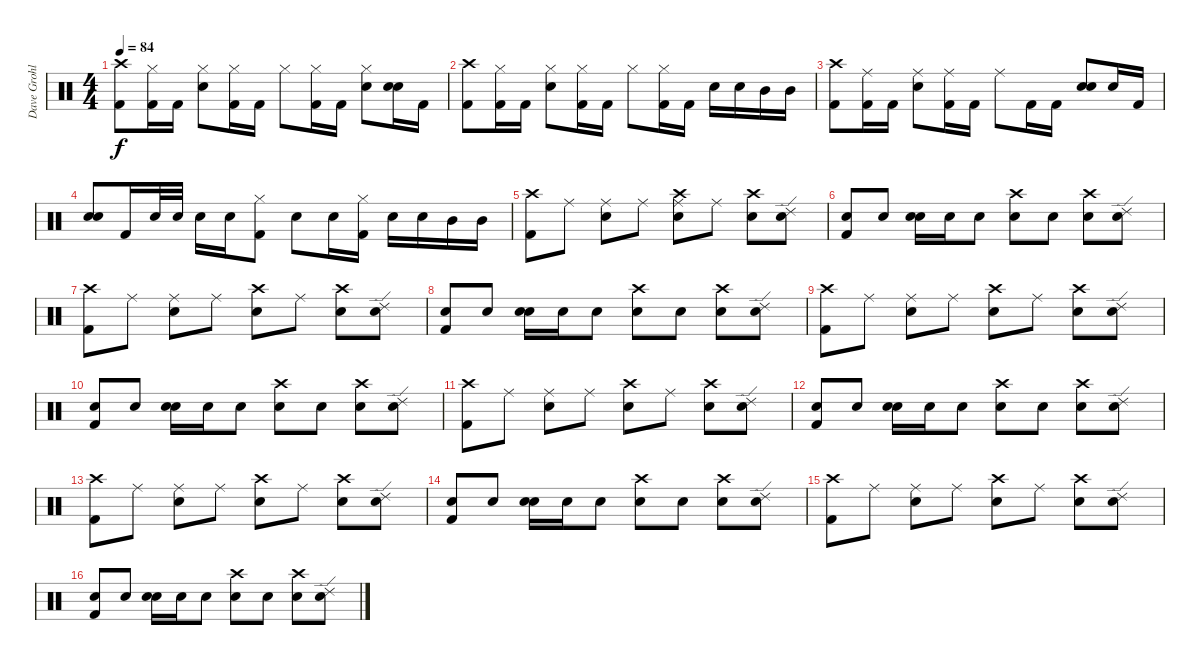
\track ("Dave Grohl (Drums)" "Dave Grohl") {instrument percussion}
\staff {score}
\articulation defaults
\ts (4 4)
\tempo 84
\clef neutral
\ks c
("Crash high (hit)"{x} "Kick (hit) 2").8{dy f} ("Hi-Hat (closed)" "Kick (hit) 2").16 "Kick (hit) 2".16 ("Hi-Hat (closed)" "Snare (hit) 2").8 ("Hi-Hat (closed)" "Kick (hit) 2").16 "Kick (hit) 2".16 "Hi-Hat (closed)".8 ("Hi-Hat (closed)" "Kick (hit) 2").16 "Kick (hit) 2".16 ("Hi-Hat (closed)" "Snare (hit) 2").8 ("Snare (hit) 2" "Snare (hit) 2").16 "Kick (hit) 2".16 |
("Crash high (hit)"{x} "Kick (hit) 2").8 ("Hi-Hat (closed)" "Kick (hit) 2").16 "Kick (hit) 2".16 ("Hi-Hat (closed)" "Snare (hit) 2").8 ("Hi-Hat (closed)" "Kick (hit) 2").16 "Kick (hit) 2".16 "Hi-Hat (closed)".8 ("Hi-Hat (closed)" "Kick (hit) 2").16 "Kick (hit) 2".16 "Snare (hit) 2".16 "Snare (hit) 2".16 "Mid Tom (hit)".16 "Mid Tom (hit)".16 |
("Crash high (hit)"{x} "Kick (hit) 2").8 ("Ride (middle)"{x} "Kick (hit) 2").16 "Kick (hit) 2".16 ("Ride (middle)"{x} "Snare (hit) 2").8 ("Ride (middle)"{x} "Kick (hit) 2").16 "Kick (hit) 2".16 "Ride (middle)"{x}.8 "Kick (hit) 2".16 "Kick (hit) 2".16 ("Snare (hit)"{x} "Snare (hit) 2").8 "Snare (hit)"{x}.16 "Kick (hit) 2".16 |
("Snare (hit)"{x} "Snare (hit) 2").8 "Kick (hit) 2".16 "Snare (hit) 2".32 "Snare (hit) 2".32 "Snare (hit) 2".16 "Snare (hit) 2".16 ("Hi-Hat (closed)" "Kick (hit) 2").8 "Snare (hit) 2".8 "Snare (hit) 2".16 ("Hi-Hat (closed)" "Kick (hit) 2").16 "Snare (hit) 2".16 "Snare (hit) 2".16 "Mid Tom (hit)".16 "Mid Tom (hit)".16 |
("Crash high (hit)"{x} "Kick (hit) 2").8 "Ride (middle)"{x}.8 ("Ride (middle)"{x} "Snare (hit) 2").8 "Ride (middle)"{x}.8 ("Ride (middle)"{x} "Snare (hit) 2" "Crash high (hit)").8 "Ride (middle)"{x}.8 ("Crash high (hit)" "Snare (hit) 2").8 ("Ride (edge) 2" "Snare (hit) 2").8 |
("Snare (hit)"{x} "Kick (hit) 2").8 "Snare (hit)"{x}.8 ("Snare (hit)"{x} "Snare (hit) 2").16 "Snare (hit) 2".16 "Snare (hit)"{x}.8 ("Snare (hit) 2" "Crash high (hit)").8 "Snare (hit)"{x}.8 ("Crash high (hit)" "Snare (hit) 2").8 ("Ride (edge) 2" "Snare (hit) 2").8 |
("Crash high (hit)"{x} "Kick (hit) 2").8 "Ride (middle)"{x}.8 ("Ride (middle)"{x} "Snare (hit) 2").8 "Ride (middle)"{x}.8 ("Snare (hit) 2" "Crash high (hit)").8 "Ride (middle)"{x}.8 ("Crash high (hit)" "Snare (hit) 2").8 ("Ride (edge) 2" "Snare (hit) 2").8 |
("Snare (hit)"{x} "Kick (hit) 2").8 "Snare (hit)"{x}.8 ("Snare (hit)"{x} "Snare (hit) 2").16 "Snare (hit) 2".16 "Snare (hit)"{x}.8 ("Snare (hit) 2" "Crash high (hit)").8 "Snare (hit)"{x}.8 ("Snare (hit) 2" "Crash high (hit)").8 ("Snare (hit) 2" "Ride (edge) 2").8 |
("Crash high (hit)"{x} "Kick (hit) 2").8 "Ride (middle)"{x}.8 ("Ride (middle)"{x} "Snare (hit) 2").8 "Ride (middle)"{x}.8 ("Crash high (hit)" "Snare (hit) 2").8 "Ride (middle)"{x}.8 ("Crash high (hit)" "Snare (hit) 2").8 ("Ride (edge) 2" "Snare (hit) 2").8 |
("Snare (hit)"{x} "Kick (hit) 2").8 "Snare (hit)"{x}.8 ("Snare (hit)"{x} "Snare (hit) 2").16 "Snare (hit) 2".16 "Snare (hit)"{x}.8 ("Crash high (hit)" "Snare (hit) 2").8 "Snare (hit)"{x}.8 ("Crash high (hit)" "Snare (hit) 2").8 ("Ride (edge) 2" "Snare (hit) 2").8 |
("Crash high (hit)"{x} "Kick (hit) 2").8 "Ride (middle)"{x}.8 ("Ride (middle)"{x} "Snare (hit) 2").8 "Ride (middle)"{x}.8 ("Crash high (hit)" "Snare (hit) 2").8 "Ride (middle)"{x}.8 ("Crash high (hit)" "Snare (hit) 2").8 ("Ride (edge) 2" "Snare (hit) 2").8 |
("Snare (hit)"{x} "Kick (hit) 2").8 "Snare (hit)"{x}.8 ("Snare (hit)"{x} "Snare (hit) 2").16 "Snare (hit) 2".16 "Snare (hit)"{x}.8 ("Crash high (hit)" "Snare (hit) 2").8 "Snare (hit)"{x}.8 ("Crash high (hit)" "Snare (hit) 2").8 ("Ride (edge) 2" "Snare (hit) 2").8 |
("Crash high (hit)"{x} "Kick (hit) 2").8 "Ride (middle)"{x}.8 ("Ride (middle)"{x} "Snare (hit) 2").8 "Ride (middle)"{x}.8 ("Crash high (hit)" "Snare (hit) 2").8 "Ride (middle)"{x}.8 ("Crash high (hit)" "Snare (hit) 2").8 ("Ride (edge) 2" "Snare (hit) 2").8 |
("Snare (hit)"{x} "Kick (hit) 2").8 "Snare (hit)"{x}.8 ("Snare (hit)"{x} "Snare (hit) 2").16 "Snare (hit) 2".16 "Snare (hit)"{x}.8 ("Crash high (hit)" "Snare (hit) 2").8 "Snare (hit)"{x}.8 ("Crash high (hit)" "Snare (hit) 2").8 ("Ride (edge) 2" "Snare (hit) 2").8 |
("Crash high (hit)"{x} "Kick (hit) 2").8 "Ride (middle)"{x}.8 ("Ride (middle)"{x} "Snare (hit) 2").8 "Ride (middle)"{x}.8 ("Crash high (hit)" "Snare (hit) 2").8 "Ride (middle)"{x}.8 ("Crash high (hit)" "Snare (hit) 2").8 ("Ride (edge) 2" "Snare (hit) 2").8 |
("Snare (hit)"{x} "Kick (hit) 2").8 "Snare (hit)"{x}.8 ("Snare (hit)"{x} "Snare (hit) 2").16 "Snare (hit) 2".16 "Snare (hit)"{x}.8 ("Crash high (hit)" "Snare (hit) 2").8 "Snare (hit)"{x}.8 ("Crash high (hit)" "Snare (hit) 2").8 ("Ride (edge) 2" "Snare (hit) 2").8
